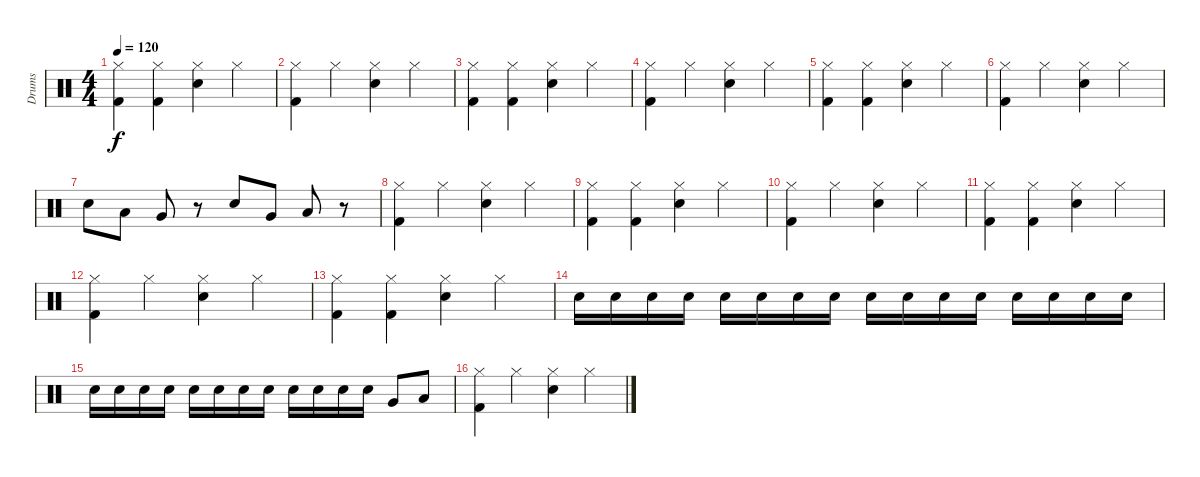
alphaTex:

\track ("Drums" "Drums") {instrument percussion}
\staff {score}
\articulation defaults
\ts (4 4)
\tempo 120
\clef neutral
\ks c
("Kick (hit) 2" "Hi-Hat (closed)").4{dy f} ("Kick (hit) 2" "Hi-Hat (closed)").4 ("Snare (hit) 2" "Hi-Hat (closed)").4 "Hi-Hat (closed)".4 |
("Kick (hit) 2" "Hi-Hat (closed)").4 "Hi-Hat (closed)".4 ("Snare (hit) 2" "Hi-Hat (closed)").4 "Hi-Hat (closed)".4 |
("Kick (hit) 2" "Hi-Hat (closed)").4 ("Kick (hit) 2" "Hi-Hat (closed)").4 ("Snare (hit) 2" "Hi-Hat (closed)").4 "Hi-Hat (closed)".4 |
("Kick (hit) 2" "Hi-Hat (closed)").4 "Hi-Hat (closed)".4 ("Snare (hit) 2" "Hi-Hat (closed)").4 "Hi-Hat (closed)".4 |
("Kick (hit) 2" "Hi-Hat (closed)").4 ("Kick (hit) 2" "Hi-Hat (closed)").4 ("Snare (hit) 2" "Hi-Hat (closed)").4 "Hi-Hat (closed)".4 |
("Kick (hit) 2" "Hi-Hat (closed)").4 "Hi-Hat (closed)".4 ("Snare (hit) 2" "Hi-Hat (closed)").4 "Hi-Hat (closed)".4 |
"Snare (hit) 2".8 "Low Floor Tom (hit)".8 "Very Low Tom (hit)".8 r.8 "Snare (hit) 2".8 "Very Low Tom (hit)".8 "Low Tom (hit)".8 r.8 |
("Kick (hit) 2" "Hi-Hat (closed)").4 "Hi-Hat (closed)".4 ("Snare (hit) 2" "Hi-Hat (closed)").4 "Hi-Hat (closed)".4 |
("Kick (hit) 2" "Hi-Hat (closed)").4 ("Kick (hit) 2" "Hi-Hat (closed)").4 ("Snare (hit) 2" "Hi-Hat (closed)").4 "Hi-Hat (closed)".4 |
("Kick (hit) 2" "Hi-Hat (closed)").4 "Hi-Hat (closed)".4 ("Snare (hit) 2" "Hi-Hat (closed)").4 "Hi-Hat (closed)".4 |
("Kick (hit) 2" "Hi-Hat (closed)").4 ("Kick (hit) 2" "Hi-Hat (closed)").4 ("Snare (hit) 2" "Hi-Hat (closed)").4 "Hi-Hat (closed)".4 |
("Kick (hit) 2" "Hi-Hat (closed)").4 "Hi-Hat (closed)".4 ("Snare (hit) 2" "Hi-Hat (closed)").4 "Hi-Hat (closed)".4 |
("Kick (hit) 2" "Hi-Hat (closed)").4 ("Kick (hit) 2" "Hi-Hat (closed)").4 ("Snare (hit) 2" "Hi-Hat (closed)").4 "Hi-Hat (closed)".4 |
"Snare (hit) 2".16 "Snare (hit) 2".16 "Snare (hit) 2".16 "Snare (hit) 2".16 "Snare (hit) 2".16 "Snare (hit) 2".16 "Snare (hit) 2".16 "Snare (hit) 2".16 "Snare (hit) 2".16 "Snare (hit) 2".16 "Snare (hit) 2".16 "Snare (hit) 2".16 "Snare (hit) 2".16 "Snare (hit) 2".16 "Snare (hit) 2".16 "Snare (hit) 2".16 |
"Snare (hit) 2".16 "Snare (hit) 2".16 "Snare (hit) 2".16 "Snare (hit) 2".16 "Snare (hit) 2".16 "Snare (hit) 2".16 "Snare (hit) 2".16 "Snare (hit) 2".16 "Snare (hit) 2".16 "Snare (hit) 2".16 "Snare (hit) 2".16 "Snare (hit) 2".16 "Very Low Tom (hit)".8 "Low Floor Tom (hit)".8 |
("Kick (hit) 2" "Hi-Hat (closed)").4 "Hi-Hat (closed)".4 ("Snare (hit) 2" "Hi-Hat (closed)").4 "Hi-Hat (closed)".4
